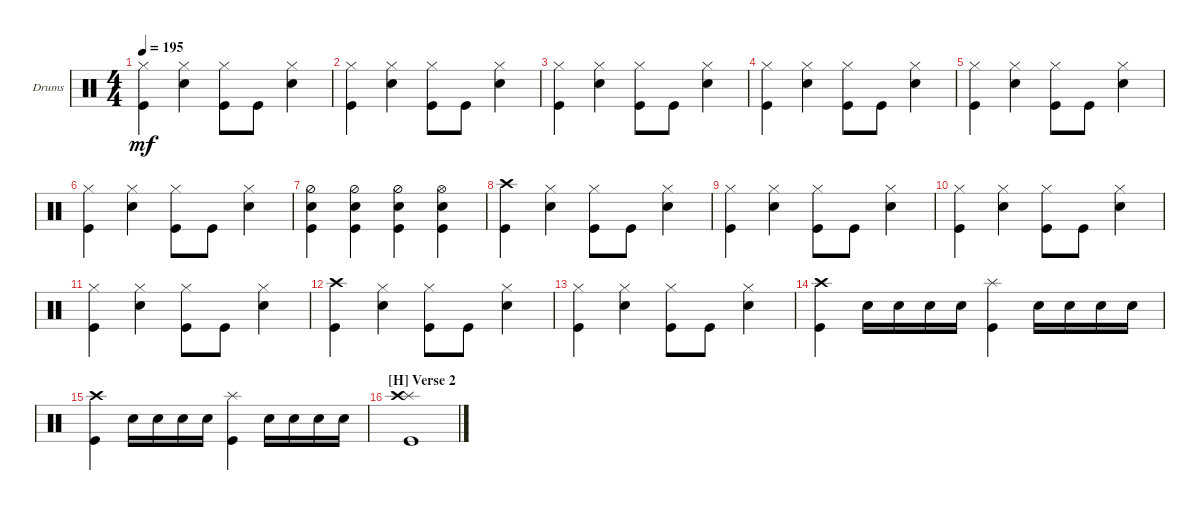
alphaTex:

\defaultSystemsLayout 4
\bracketExtendMode groupsimilarinstruments
\firstSystemTrackNameOrientation horizontal
\otherSystemsTrackNameOrientation horizontal
\track ("Drumkit" "Drums") {instrument percussion}
\staff {score}
\articulation defaults
\ts (4 4)
\tempo 195
\clef neutral
\ks c
("Kick (hit)" "Hi-Hat (closed)").4{dy mf} ("Snare (hit) 2" "Hi-Hat (closed)").4 ("Kick (hit)" "Hi-Hat (closed)").8 "Kick (hit)".8 ("Snare (hit) 2" "Hi-Hat (closed)").4 |
("Kick (hit)" "Hi-Hat (closed)").4 ("Snare (hit) 2" "Hi-Hat (closed)").4 ("Kick (hit)" "Hi-Hat (closed)").8 "Kick (hit)".8 ("Snare (hit) 2" "Hi-Hat (closed)").4 |
("Kick (hit)" "Hi-Hat (closed)").4 ("Snare (hit) 2" "Hi-Hat (closed)").4 ("Kick (hit)" "Hi-Hat (closed)").8 "Kick (hit)".8 ("Snare (hit) 2" "Hi-Hat (closed)").4 |
("Kick (hit)" "Hi-Hat (closed)").4 ("Snare (hit) 2" "Hi-Hat (closed)").4 ("Kick (hit)" "Hi-Hat (closed)").8 "Kick (hit)".8 ("Snare (hit) 2" "Hi-Hat (closed)").4 |
("Kick (hit)" "Hi-Hat (closed)").4 ("Snare (hit) 2" "Hi-Hat (closed)").4 ("Kick (hit)" "Hi-Hat (closed)").8 "Kick (hit)".8 ("Snare (hit) 2" "Hi-Hat (closed)").4 |
("Kick (hit)" "Hi-Hat (closed)").4 ("Snare (hit) 2" "Hi-Hat (closed)").4 ("Kick (hit)" "Hi-Hat (closed)").8 "Kick (hit)".8 ("Snare (hit) 2" "Hi-Hat (closed)").4 |
("Kick (hit)" "Snare (hit) 2" "Hi-Hat (half)").4 ("Kick (hit)" "Snare (hit) 2" "Hi-Hat (half)").4 ("Kick (hit)" "Snare (hit) 2" "Hi-Hat (half)").4 ("Kick (hit)" "Snare (hit) 2" "Hi-Hat (open)").4 |
("Crash high (hit)" "Kick (hit)").4 ("Snare (hit) 2" "Hi-Hat (closed)").4 ("Kick (hit)" "Hi-Hat (closed)").8 "Kick (hit)".8 ("Snare (hit) 2" "Hi-Hat (closed)").4 |
("Kick (hit)" "Hi-Hat (closed)").4 ("Snare (hit) 2" "Hi-Hat (closed)").4 ("Kick (hit)" "Hi-Hat (closed)").8 "Kick (hit)".8 ("Snare (hit) 2" "Hi-Hat (closed)").4 |
("Kick (hit)" "Hi-Hat (closed)").4 ("Snare (hit) 2" "Hi-Hat (closed)").4 ("Kick (hit)" "Hi-Hat (closed)").8 "Kick (hit)".8 ("Snare (hit) 2" "Hi-Hat (closed)").4 |
("Kick (hit)" "Hi-Hat (closed)").4 ("Snare (hit) 2" "Hi-Hat (closed)").4 ("Kick (hit)" "Hi-Hat (closed)").8 "Kick (hit)".8 ("Snare (hit) 2" "Hi-Hat (closed)").4 |
("Crash high (hit)" "Kick (hit)").4 ("Snare (hit) 2" "Hi-Hat (closed)").4 ("Kick (hit)" "Hi-Hat (closed)").8 "Kick (hit)".8 ("Snare (hit) 2" "Hi-Hat (closed)").4 |
("Kick (hit)" "Hi-Hat (closed)").4 ("Snare (hit) 2" "Hi-Hat (closed)").4 ("Kick (hit)" "Hi-Hat (closed)").8 "Kick (hit)".8 ("Snare (hit) 2" "Hi-Hat (closed)").4 |
("Crash high (hit)" "Kick (hit)").4 "Snare (hit) 2".16 "Snare (hit) 2".16 "Snare (hit) 2".16 "Snare (hit) 2".16 ("Kick (hit)" "Splash (hit)").4 "Snare (hit) 2".16 "Snare (hit) 2".16 "Snare (hit) 2".16 "Snare (hit) 2".16 |
("Crash high (hit)" "Kick (hit)").4 "Snare (hit) 2".16 "Snare (hit) 2".16 "Snare (hit) 2".16 "Snare (hit) 2".16 ("Kick (hit)" "Splash (hit)").4 "Snare (hit) 2".16 "Snare (hit) 2".16 "Snare (hit) 2".16 "Snare (hit) 2".16 |
\section ("H" "Verse 2")
("Splash (hit)" "Crash high (hit)" "Kick (hit)").1
